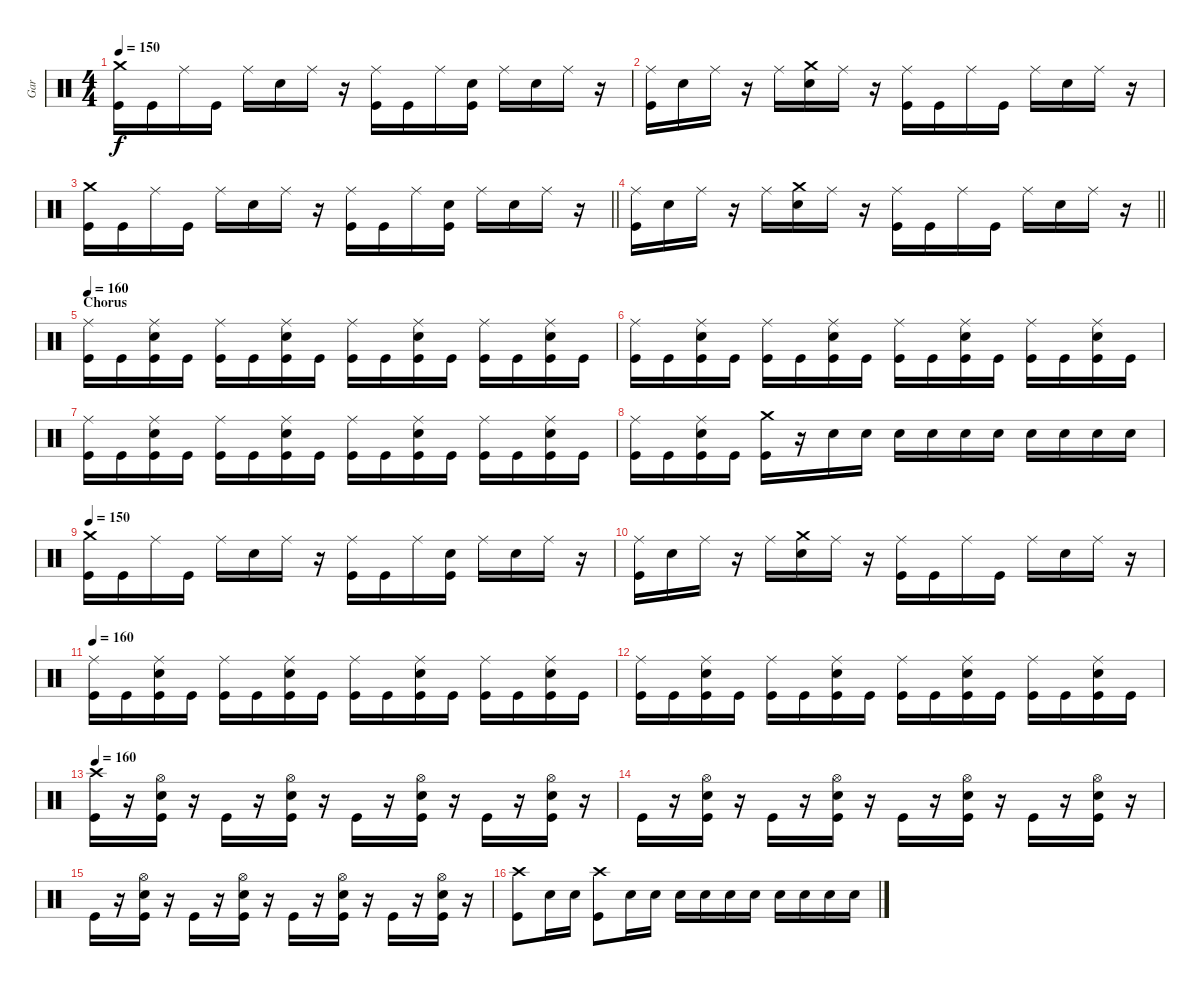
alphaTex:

\track ("Gar" "Gar") {instrument percussion}
\staff {score}
\articulation defaults
\ts (4 4)
\tempo 150
\clef neutral
\ks c
("Crash medium (hit)" "Kick (hit)").16{dy f} "Kick (hit)".16 "Ride (middle)".16 "Kick (hit)".16 "Ride (middle)".16 "Snare (hit) 2".16 "Ride (middle)".16 r.16 ("Ride (middle)" "Kick (hit)").16 "Kick (hit)".16 "Ride (middle)".16 ("Snare (hit) 2" "Kick (hit)").16 "Ride (middle)".16 "Snare (hit) 2".16 "Ride (middle)".16 r.16 |
("Ride (middle)" "Kick (hit)").16 "Snare (hit) 2".16 "Ride (middle)".16 r.16 "Ride (middle)".16 ("Crash medium (hit)" "Snare (hit) 2").16 "Ride (middle)".16 r.16 ("Ride (middle)" "Kick (hit)").16 "Kick (hit)".16 "Ride (middle)".16 "Kick (hit)".16 "Ride (middle)".16 "Snare (hit) 2".16 "Ride (middle)".16 r.16 |
\barLineRight lightlight
("Crash medium (hit)" "Kick (hit)").16 "Kick (hit)".16 "Ride (middle)".16 "Kick (hit)".16 "Ride (middle)".16 "Snare (hit) 2".16 "Ride (middle)".16 r.16 ("Ride (middle)" "Kick (hit)").16 "Kick (hit)".16 "Ride (middle)".16 ("Snare (hit) 2" "Kick (hit)").16 "Ride (middle)".16 "Snare (hit) 2".16 "Ride (middle)".16 r.16 |
\barLineRight lightlight
("Ride (middle)" "Kick (hit)").16 "Snare (hit) 2".16 "Ride (middle)".16 r.16 "Ride (middle)".16 ("Crash medium (hit)" "Snare (hit) 2").16 "Ride (middle)".16 r.16 ("Ride (middle)" "Kick (hit)").16 "Kick (hit)".16 "Ride (middle)".16 "Kick (hit)".16 "Ride (middle)".16 "Snare (hit) 2".16 "Ride (middle)".16 r.16 |
\section ("" "Chorus")
\tempo 160
("Ride (middle)" "Kick (hit)").16 "Kick (hit)".16 ("Ride (middle)" "Snare (hit) 2" "Kick (hit)").16 "Kick (hit)".16 ("Ride (middle)" "Kick (hit)").16 "Kick (hit)".16 ("Ride (middle)" "Snare (hit) 2" "Kick (hit)").16 "Kick (hit)".16 ("Ride (middle)" "Kick (hit)").16 "Kick (hit)".16 ("Ride (middle)" "Snare (hit) 2" "Kick (hit)").16 "Kick (hit)".16 ("Ride (middle)" "Kick (hit)").16 "Kick (hit)".16 ("Ride (middle)" "Snare (hit) 2" "Kick (hit)").16 "Kick (hit)".16 |
("Ride (middle)" "Kick (hit)").16 "Kick (hit)".16 ("Ride (middle)" "Snare (hit) 2" "Kick (hit)").16 "Kick (hit)".16 ("Ride (middle)" "Kick (hit)").16 "Kick (hit)".16 ("Ride (middle)" "Snare (hit) 2" "Kick (hit)").16 "Kick (hit)".16 ("Ride (middle)" "Kick (hit)").16 "Kick (hit)".16 ("Ride (middle)" "Snare (hit) 2" "Kick (hit)").16 "Kick (hit)".16 ("Ride (middle)" "Kick (hit)").16 "Kick (hit)".16 ("Ride (middle)" "Snare (hit) 2" "Kick (hit)").16 "Kick (hit)".16 |
("Ride (middle)" "Kick (hit)").16 "Kick (hit)".16 ("Ride (middle)" "Snare (hit) 2" "Kick (hit)").16 "Kick (hit)".16 ("Ride (middle)" "Kick (hit)").16 "Kick (hit)".16 ("Ride (middle)" "Snare (hit) 2" "Kick (hit)").16 "Kick (hit)".16 ("Ride (middle)" "Kick (hit)").16 "Kick (hit)".16 ("Ride (middle)" "Snare (hit) 2" "Kick (hit)").16 "Kick (hit)".16 ("Ride (middle)" "Kick (hit)").16 "Kick (hit)".16 ("Ride (middle)" "Snare (hit) 2" "Kick (hit)").16 "Kick (hit)".16 |
("Ride (middle)" "Kick (hit)").16 "Kick (hit)".16 ("Ride (middle)" "Snare (hit) 2" "Kick (hit)").16 "Kick (hit)".16 ("Crash medium (hit)" "Kick (hit)").16 r.16 "Snare (hit) 2".16 "Snare (hit) 2".16 "Snare (hit) 2".16 "Snare (hit) 2".16 "Snare (hit) 2".16 "Snare (hit) 2".16 "Snare (hit) 2".16 "Snare (hit) 2".16 "Snare (hit) 2".16 "Snare (hit) 2".16 |
\tempo 150
("Crash medium (hit)" "Kick (hit)").16 "Kick (hit)".16 "Ride (middle)".16 "Kick (hit)".16 "Ride (middle)".16 "Snare (hit) 2".16 "Ride (middle)".16 r.16 ("Ride (middle)" "Kick (hit)").16 "Kick (hit)".16 "Ride (middle)".16 ("Snare (hit) 2" "Kick (hit)").16 "Ride (middle)".16 "Snare (hit) 2".16 "Ride (middle)".16 r.16 |
("Ride (middle)" "Kick (hit)").16 "Snare (hit) 2".16 "Ride (middle)".16 r.16 "Ride (middle)".16 ("Crash medium (hit)" "Snare (hit) 2").16 "Ride (middle)".16 r.16 ("Ride (middle)" "Kick (hit)").16 "Kick (hit)".16 "Ride (middle)".16 "Kick (hit)".16 "Ride (middle)".16 "Snare (hit) 2".16 "Ride (middle)".16 r.16 |
\tempo 160
("Ride (middle)" "Kick (hit)").16 "Kick (hit)".16 ("Ride (middle)" "Snare (hit) 2" "Kick (hit)").16 "Kick (hit)".16 ("Ride (middle)" "Kick (hit)").16 "Kick (hit)".16 ("Ride (middle)" "Snare (hit) 2" "Kick (hit)").16 "Kick (hit)".16 ("Ride (middle)" "Kick (hit)").16 "Kick (hit)".16 ("Ride (middle)" "Snare (hit) 2" "Kick (hit)").16 "Kick (hit)".16 ("Ride (middle)" "Kick (hit)").16 "Kick (hit)".16 ("Ride (middle)" "Snare (hit) 2" "Kick (hit)").16 "Kick (hit)".16 |
("Ride (middle)" "Kick (hit)").16 "Kick (hit)".16 ("Ride (middle)" "Snare (hit) 2" "Kick (hit)").16 "Kick (hit)".16 ("Ride (middle)" "Kick (hit)").16 "Kick (hit)".16 ("Ride (middle)" "Snare (hit) 2" "Kick (hit)").16 "Kick (hit)".16 ("Ride (middle)" "Kick (hit)").16 "Kick (hit)".16 ("Ride (middle)" "Snare (hit) 2" "Kick (hit)").16 "Kick (hit)".16 ("Ride (middle)" "Kick (hit)").16 "Kick (hit)".16 ("Ride (middle)" "Snare (hit) 2" "Kick (hit)").16 "Kick (hit)".16 |
\tempo 160
("Crash high (hit)" "Kick (hit)").16 r.16 ("Hi-Hat (open)" "Snare (hit) 2" "Kick (hit)").16 r.16 "Kick (hit)".16 r.16 ("Hi-Hat (open)" "Snare (hit) 2" "Kick (hit)").16 r.16 "Kick (hit)".16 r.16 ("Hi-Hat (open)" "Snare (hit) 2" "Kick (hit)").16 r.16 "Kick (hit)".16 r.16 ("Hi-Hat (open)" "Snare (hit) 2" "Kick (hit)").16 r.16 |
"Kick (hit)".16 r.16 ("Hi-Hat (open)" "Snare (hit) 2" "Kick (hit)").16 r.16 "Kick (hit)".16 r.16 ("Hi-Hat (open)" "Snare (hit) 2" "Kick (hit)").16 r.16 "Kick (hit)".16 r.16 ("Hi-Hat (open)" "Snare (hit) 2" "Kick (hit)").16 r.16 "Kick (hit)".16 r.16 ("Hi-Hat (open)" "Snare (hit) 2" "Kick (hit)").16 r.16 |
"Kick (hit)".16 r.16 ("Hi-Hat (open)" "Snare (hit) 2" "Kick (hit)").16 r.16 "Kick (hit)".16 r.16 ("Hi-Hat (open)" "Snare (hit) 2" "Kick (hit)").16 r.16 "Kick (hit)".16 r.16 ("Hi-Hat (open)" "Snare (hit) 2" "Kick (hit)").16 r.16 "Kick (hit)".16 r.16 ("Hi-Hat (open)" "Snare (hit) 2" "Kick (hit)").16 r.16 |
("Crash high (hit)" "Kick (hit)").8 "Snare (hit) 2".16 "Snare (hit) 2".16 ("Crash high (hit)" "Kick (hit)").8 "Snare (hit) 2".16 "Snare (hit) 2".16 "Snare (hit) 2".16 "Snare (hit) 2".16 "Snare (hit) 2".16 "Snare (hit) 2".16 "Snare (hit) 2".16 "Snare (hit) 2".16 "Snare (hit) 2".16 "Snare (hit) 2".16
